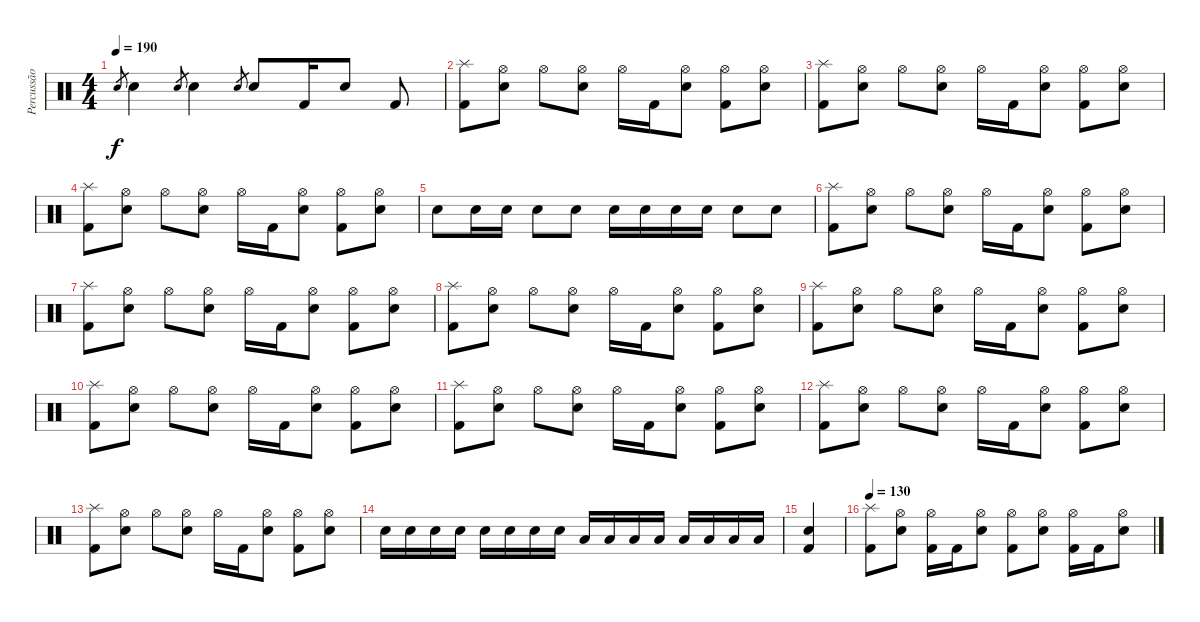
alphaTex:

\track ("Percussão" "Percussão") {instrument percussion}
\staff {score}
\articulation defaults
\ts (4 4)
\tempo 190
\clef neutral
\ks c "Snare (hit) 2".8{gr dy f} "Snare (hit) 2".4 "Snare (hit) 2".8{gr} "Snare (hit) 2".4 "Snare (hit) 2".8{gr} "Snare (hit) 2".8 "Kick (hit) 2".16 "Snare (hit) 2".8 "Kick (hit) 2".8
|
("Splash (hit)" "Kick (hit) 2").8 ("Hi-Hat (open)" "Snare (hit) 2").8 "Hi-Hat (open)".8 ("Hi-Hat (open)" "Snare (hit) 2").8 "Hi-Hat (open)".16 "Kick (hit) 2".16 ("Hi-Hat (open)" "Snare (hit) 2").8 ("Hi-Hat (open)" "Kick (hit) 2").8 ("Hi-Hat (open)" "Snare (hit) 2").8 |
("Splash (hit)" "Kick (hit) 2").8 ("Hi-Hat (open)" "Snare (hit) 2").8 "Hi-Hat (open)".8 ("Hi-Hat (open)" "Snare (hit) 2").8 "Hi-Hat (open)".16 "Kick (hit) 2".16 ("Hi-Hat (open)" "Snare (hit) 2").8 ("Hi-Hat (open)" "Kick (hit) 2").8 ("Hi-Hat (open)" "Snare (hit) 2").8 |
("Splash (hit)" "Kick (hit) 2").8 ("Hi-Hat (open)" "Snare (hit) 2").8 "Hi-Hat (open)".8 ("Hi-Hat (open)" "Snare (hit) 2").8 "Hi-Hat (open)".16 "Kick (hit) 2".16 ("Hi-Hat (open)" "Snare (hit) 2").8 ("Hi-Hat (open)" "Kick (hit) 2").8 ("Hi-Hat (open)" "Snare (hit) 2").8 |
"Snare (hit) 2".8 "Snare (hit) 2".16 "Snare (hit) 2".16 "Snare (hit) 2".8 "Snare (hit) 2".8 "Snare (hit) 2".16 "Snare (hit) 2".16 "Snare (hit) 2".16 "Snare (hit) 2".16 "Snare (hit) 2".8 "Snare (hit) 2".8 |
("Splash (hit)" "Kick (hit) 2").8 ("Hi-Hat (open)" "Snare (hit) 2").8 "Hi-Hat (open)".8 ("Hi-Hat (open)" "Snare (hit) 2").8 "Hi-Hat (open)".16 "Kick (hit) 2".16 ("Hi-Hat (open)" "Snare (hit) 2").8 ("Hi-Hat (open)" "Kick (hit) 2").8 ("Hi-Hat (open)" "Snare (hit) 2").8 |
("Splash (hit)" "Kick (hit) 2").8 ("Hi-Hat (open)" "Snare (hit) 2").8 "Hi-Hat (open)".8 ("Hi-Hat (open)" "Snare (hit) 2").8 "Hi-Hat (open)".16 "Kick (hit) 2".16 ("Hi-Hat (open)" "Snare (hit) 2").8 ("Hi-Hat (open)" "Kick (hit) 2").8 ("Hi-Hat (open)" "Snare (hit) 2").8 |
("Splash (hit)" "Kick (hit) 2").8 ("Hi-Hat (open)" "Snare (hit) 2").8 "Hi-Hat (open)".8 ("Hi-Hat (open)" "Snare (hit) 2").8 "Hi-Hat (open)".16 "Kick (hit) 2".16 ("Hi-Hat (open)" "Snare (hit) 2").8 ("Hi-Hat (open)" "Kick (hit) 2").8 ("Hi-Hat (open)" "Snare (hit) 2").8 |
("Splash (hit)" "Kick (hit) 2").8 ("Hi-Hat (open)" "Snare (hit) 2").8 "Hi-Hat (open)".8 ("Hi-Hat (open)" "Snare (hit) 2").8 "Hi-Hat (open)".16 "Kick (hit) 2".16 ("Hi-Hat (open)" "Snare (hit) 2").8 ("Hi-Hat (open)" "Kick (hit) 2").8 ("Hi-Hat (open)" "Snare (hit) 2").8 |
("Splash (hit)" "Kick (hit) 2").8 ("Hi-Hat (open)" "Snare (hit) 2").8 "Hi-Hat (open)".8 ("Hi-Hat (open)" "Snare (hit) 2").8 "Hi-Hat (open)".16 "Kick (hit) 2".16 ("Hi-Hat (open)" "Snare (hit) 2").8 ("Hi-Hat (open)" "Kick (hit) 2").8 ("Hi-Hat (open)" "Snare (hit) 2").8 |
("Splash (hit)" "Kick (hit) 2").8 ("Hi-Hat (open)" "Snare (hit) 2").8 "Hi-Hat (open)".8 ("Hi-Hat (open)" "Snare (hit) 2").8 "Hi-Hat (open)".16 "Kick (hit) 2".16 ("Hi-Hat (open)" "Snare (hit) 2").8 ("Hi-Hat (open)" "Kick (hit) 2").8 ("Hi-Hat (open)" "Snare (hit) 2").8 |
("Splash (hit)" "Kick (hit) 2").8 ("Hi-Hat (open)" "Snare (hit) 2").8 "Hi-Hat (open)".8 ("Hi-Hat (open)" "Snare (hit) 2").8 "Hi-Hat (open)".16 "Kick (hit) 2".16 ("Hi-Hat (open)" "Snare (hit) 2").8 ("Hi-Hat (open)" "Kick (hit) 2").8 ("Hi-Hat (open)" "Snare (hit) 2").8 |
("Splash (hit)" "Kick (hit) 2").8 ("Hi-Hat (open)" "Snare (hit) 2").8 "Hi-Hat (open)".8 ("Hi-Hat (open)" "Snare (hit) 2").8 "Hi-Hat (open)".16 "Kick (hit) 2".16 ("Hi-Hat (open)" "Snare (hit) 2").8 ("Hi-Hat (open)" "Kick (hit) 2").8 ("Hi-Hat (open)" "Snare (hit) 2").8 |
"Snare (hit) 2".16 "Snare (hit) 2".16 "Snare (hit) 2".16 "Snare (hit) 2".16 "Snare (hit) 2".16 "Snare (hit) 2".16 "Snare (hit) 2".16 "Snare (hit) 2".16 "Low Floor Tom (hit)".16 "Low Floor Tom (hit)".16 "Low Floor Tom (hit)".16 "Low Floor Tom (hit)".16 "Low Tom (hit)".16 "Low Tom (hit)".16 "Low Tom (hit)".16 "Low Tom (hit)".16 |
("Snare (hit) 2" "Kick (hit) 2").4 |
\tempo 130
("Splash (hit)" "Kick (hit) 2").8 ("Hi-Hat (open)" "Snare (hit) 2").8 ("Hi-Hat (open)" "Kick (hit) 2").16 "Kick (hit) 2".16 ("Hi-Hat (open)" "Snare (hit) 2").8 ("Hi-Hat (open)" "Kick (hit) 2").8 ("Hi-Hat (open)" "Snare (hit) 2").8 ("Hi-Hat (open)" "Kick (hit) 2").16 "Kick (hit) 2".16 ("Hi-Hat (open)" "Snare (hit) 2").8
